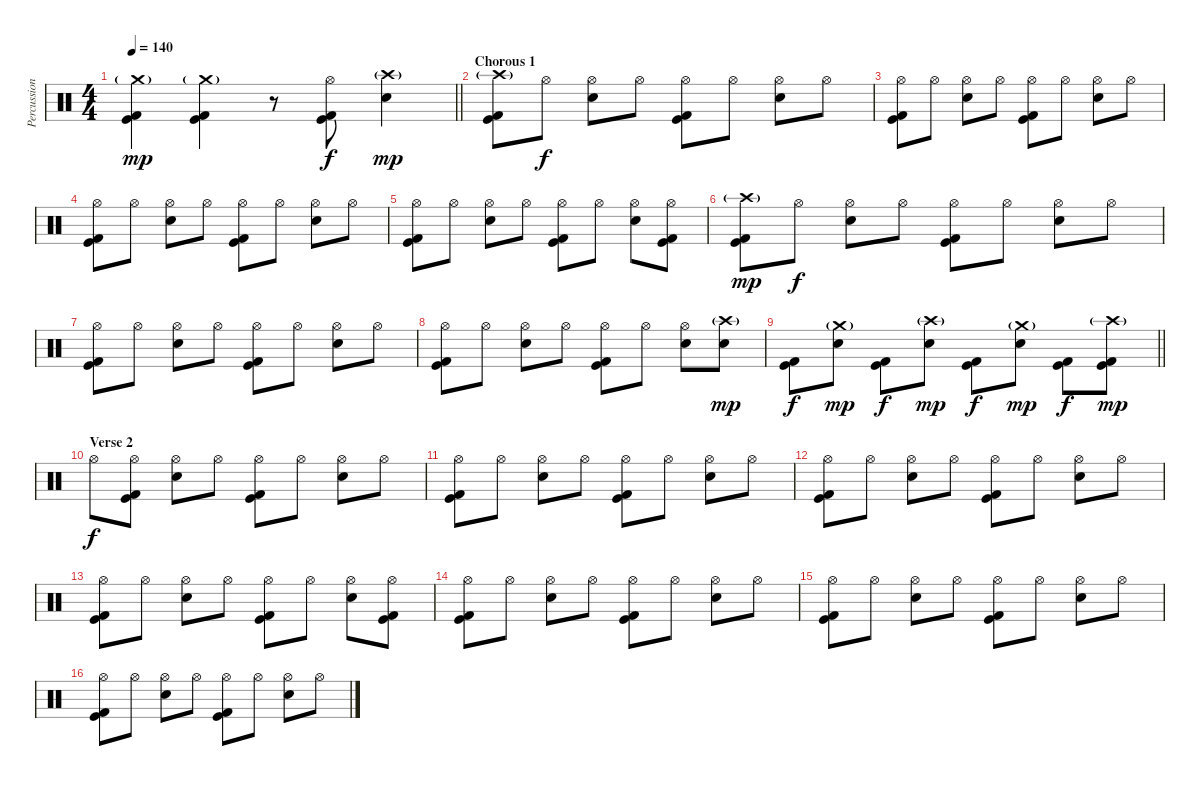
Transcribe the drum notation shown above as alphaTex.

\track ("Percussion" "Percussion") {instrument percussion}
\staff {score}
\articulation defaults
\ts (4 4)
\tempo 140
\clef neutral
\barLineRight lightlight
\ks c
("Crash medium (hit)"{g} "Kick (hit)" "Kick (hit) 2").4{dy mp} ("Crash medium (hit)"{g} "Kick (hit)" "Kick (hit) 2").4 r.8 ("Hi-Hat (open)" "Kick (hit)" "Kick (hit) 2").8{dy f} ("Crash high (hit)"{g} "Electric Snare (hit)").4{dy mp} |
\section ("" "Chorous 1")
("Crash high (hit)"{g} "Kick (hit)" "Kick (hit) 2").8 "Hi-Hat (open)".8{dy f} ("Hi-Hat (open)" "Electric Snare (hit)").8 "Hi-Hat (open)".8 ("Hi-Hat (open)" "Kick (hit)" "Kick (hit) 2").8 "Hi-Hat (open)".8 ("Hi-Hat (open)" "Electric Snare (hit)").8 "Hi-Hat (open)".8 |
("Hi-Hat (open)" "Kick (hit)" "Kick (hit) 2").8 "Hi-Hat (open)".8 ("Hi-Hat (open)" "Electric Snare (hit)").8 "Hi-Hat (open)".8 ("Hi-Hat (open)" "Kick (hit)" "Kick (hit) 2").8 "Hi-Hat (open)".8 ("Hi-Hat (open)" "Electric Snare (hit)").8 "Hi-Hat (open)".8 |
("Hi-Hat (open)" "Kick (hit)" "Kick (hit) 2").8 "Hi-Hat (open)".8 ("Hi-Hat (open)" "Electric Snare (hit)").8 "Hi-Hat (open)".8 ("Hi-Hat (open)" "Kick (hit)" "Kick (hit) 2").8 "Hi-Hat (open)".8 ("Hi-Hat (open)" "Electric Snare (hit)").8 "Hi-Hat (open)".8 |
("Hi-Hat (open)" "Kick (hit)" "Kick (hit) 2").8 "Hi-Hat (open)".8 ("Hi-Hat (open)" "Electric Snare (hit)").8 "Hi-Hat (open)".8 ("Hi-Hat (open)" "Kick (hit)" "Kick (hit) 2").8 "Hi-Hat (open)".8 ("Hi-Hat (open)" "Electric Snare (hit)").8 ("Hi-Hat (open)" "Kick (hit)" "Kick (hit) 2").8 |
("Crash high (hit)"{g} "Kick (hit)" "Kick (hit) 2").8{dy mp} "Hi-Hat (open)".8{dy f} ("Hi-Hat (open)" "Electric Snare (hit)").8 "Hi-Hat (open)".8 ("Hi-Hat (open)" "Kick (hit)" "Kick (hit) 2").8 "Hi-Hat (open)".8 ("Hi-Hat (open)" "Electric Snare (hit)").8 "Hi-Hat (open)".8 |
("Hi-Hat (open)" "Kick (hit)" "Kick (hit) 2").8 "Hi-Hat (open)".8 ("Hi-Hat (open)" "Electric Snare (hit)").8 "Hi-Hat (open)".8 ("Hi-Hat (open)" "Kick (hit)" "Kick (hit) 2").8 "Hi-Hat (open)".8 ("Hi-Hat (open)" "Electric Snare (hit)").8 "Hi-Hat (open)".8 |
("Hi-Hat (open)" "Kick (hit)" "Kick (hit) 2").8 "Hi-Hat (open)".8 ("Hi-Hat (open)" "Electric Snare (hit)").8 "Hi-Hat (open)".8 ("Hi-Hat (open)" "Kick (hit)" "Kick (hit) 2").8 "Hi-Hat (open)".8 ("Hi-Hat (open)" "Electric Snare (hit)").8 ("Crash high (hit)"{g} "Electric Snare (hit)").8{dy mp} |
\barLineRight lightlight
("Kick (hit)" "Kick (hit) 2").8{dy f} ("Crash medium (hit)"{g} "Electric Snare (hit)").8{dy mp} ("Kick (hit)" "Kick (hit) 2").8{dy f} ("Crash high (hit)"{g} "Electric Snare (hit)").8{dy mp} ("Kick (hit)" "Kick (hit) 2").8{dy f} ("Crash medium (hit)"{g} "Electric Snare (hit)").8{dy mp} ("Kick (hit)" "Kick (hit) 2").8{dy f} ("Crash high (hit)"{g} "Kick (hit)" "Kick (hit) 2").8{dy mp} |
\section ("" "Verse 2")
"Hi-Hat (open)".8{dy f} ("Hi-Hat (open)" "Kick (hit)" "Kick (hit) 2").8 ("Hi-Hat (open)" "Electric Snare (hit)").8 "Hi-Hat (open)".8 ("Hi-Hat (open)" "Kick (hit)" "Kick (hit) 2").8 "Hi-Hat (open)".8 ("Hi-Hat (open)" "Electric Snare (hit)").8 "Hi-Hat (open)".8 |
("Hi-Hat (open)" "Kick (hit)" "Kick (hit) 2").8 "Hi-Hat (open)".8 ("Hi-Hat (open)" "Electric Snare (hit)").8 "Hi-Hat (open)".8 ("Hi-Hat (open)" "Kick (hit)" "Kick (hit) 2").8 "Hi-Hat (open)".8 ("Hi-Hat (open)" "Electric Snare (hit)").8 "Hi-Hat (open)".8 |
("Hi-Hat (open)" "Kick (hit)" "Kick (hit) 2").8 "Hi-Hat (open)".8 ("Hi-Hat (open)" "Electric Snare (hit)").8 "Hi-Hat (open)".8 ("Hi-Hat (open)" "Kick (hit)" "Kick (hit) 2").8 "Hi-Hat (open)".8 ("Hi-Hat (open)" "Electric Snare (hit)").8 "Hi-Hat (open)".8 |
("Hi-Hat (open)" "Kick (hit)" "Kick (hit) 2").8 "Hi-Hat (open)".8 ("Hi-Hat (open)" "Electric Snare (hit)").8 "Hi-Hat (open)".8 ("Hi-Hat (open)" "Kick (hit)" "Kick (hit) 2").8 "Hi-Hat (open)".8 ("Hi-Hat (open)" "Electric Snare (hit)").8 ("Hi-Hat (open)" "Kick (hit)" "Kick (hit) 2").8 |
("Hi-Hat (open)" "Kick (hit)" "Kick (hit) 2").8 "Hi-Hat (open)".8 ("Hi-Hat (open)" "Electric Snare (hit)").8 "Hi-Hat (open)".8 ("Hi-Hat (open)" "Kick (hit)" "Kick (hit) 2").8 "Hi-Hat (open)".8 ("Hi-Hat (open)" "Electric Snare (hit)").8 "Hi-Hat (open)".8 |
("Hi-Hat (open)" "Kick (hit)" "Kick (hit) 2").8 "Hi-Hat (open)".8 ("Hi-Hat (open)" "Electric Snare (hit)").8 "Hi-Hat (open)".8 ("Hi-Hat (open)" "Kick (hit)" "Kick (hit) 2").8 "Hi-Hat (open)".8 ("Hi-Hat (open)" "Electric Snare (hit)").8 "Hi-Hat (open)".8 |
("Hi-Hat (open)" "Kick (hit)" "Kick (hit) 2").8 "Hi-Hat (open)".8 ("Hi-Hat (open)" "Electric Snare (hit)").8 "Hi-Hat (open)".8 ("Hi-Hat (open)" "Kick (hit)" "Kick (hit) 2").8 "Hi-Hat (open)".8 ("Hi-Hat (open)" "Electric Snare (hit)").8 "Hi-Hat (open)".8
